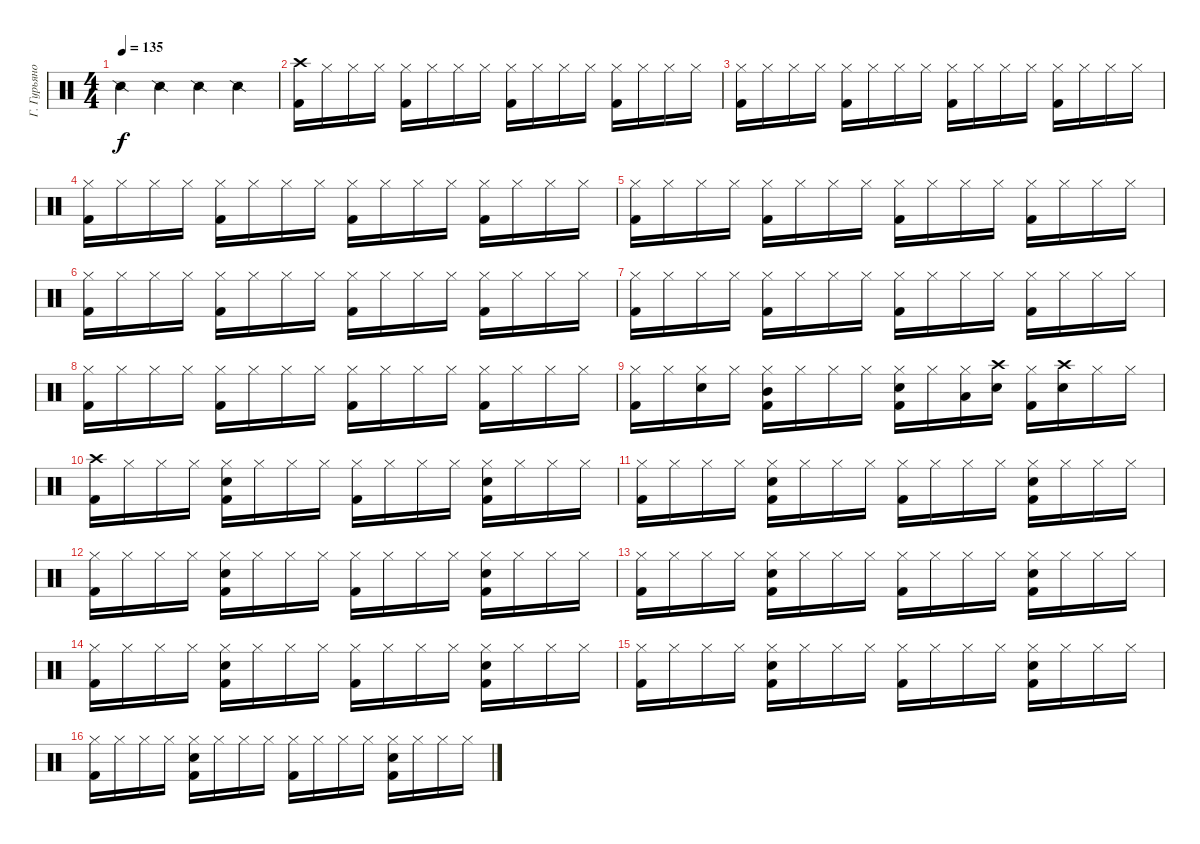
\track ("Г. Гурьянов" "Г. Гурьяно") {instrument percussion}
\staff {score}
\articulation defaults
\ts (4 4)
\tempo 135
\clef neutral
\ks c "Snare (side stick) 2".4{dy f} "Snare (side stick) 2".4 "Snare (side stick) 2".4 "Snare (side stick) 2".4
|
("Crash high (hit)" "Kick (hit) 2").16 "Hi-Hat (closed)".16 "Hi-Hat (closed)".16 "Hi-Hat (closed)".16 ("Hi-Hat (closed)" "Kick (hit) 2").16 "Hi-Hat (closed)".16 "Hi-Hat (closed)".16 "Hi-Hat (closed)".16 ("Hi-Hat (closed)" "Kick (hit) 2").16 "Hi-Hat (closed)".16 "Hi-Hat (closed)".16 "Hi-Hat (closed)".16 ("Hi-Hat (closed)" "Kick (hit) 2").16 "Hi-Hat (closed)".16 "Hi-Hat (closed)".16 "Hi-Hat (closed)".16 |
("Hi-Hat (closed)" "Kick (hit) 2").16 "Hi-Hat (closed)".16 "Hi-Hat (closed)".16 "Hi-Hat (closed)".16 ("Hi-Hat (closed)" "Kick (hit) 2").16 "Hi-Hat (closed)".16 "Hi-Hat (closed)".16 "Hi-Hat (closed)".16 ("Hi-Hat (closed)" "Kick (hit) 2").16 "Hi-Hat (closed)".16 "Hi-Hat (closed)".16 "Hi-Hat (closed)".16 ("Hi-Hat (closed)" "Kick (hit) 2").16 "Hi-Hat (closed)".16 "Hi-Hat (closed)".16 "Hi-Hat (closed)".16 |
("Hi-Hat (closed)" "Kick (hit) 2").16 "Hi-Hat (closed)".16 "Hi-Hat (closed)".16 "Hi-Hat (closed)".16 ("Hi-Hat (closed)" "Kick (hit) 2").16 "Hi-Hat (closed)".16 "Hi-Hat (closed)".16 "Hi-Hat (closed)".16 ("Hi-Hat (closed)" "Kick (hit) 2").16 "Hi-Hat (closed)".16 "Hi-Hat (closed)".16 "Hi-Hat (closed)".16 ("Hi-Hat (closed)" "Kick (hit) 2").16 "Hi-Hat (closed)".16 "Hi-Hat (closed)".16 "Hi-Hat (closed)".16 |
("Hi-Hat (closed)" "Kick (hit) 2").16 "Hi-Hat (closed)".16 "Hi-Hat (closed)".16 "Hi-Hat (closed)".16 ("Hi-Hat (closed)" "Kick (hit) 2").16 "Hi-Hat (closed)".16 "Hi-Hat (closed)".16 "Hi-Hat (closed)".16 ("Hi-Hat (closed)" "Kick (hit) 2").16 "Hi-Hat (closed)".16 "Hi-Hat (closed)".16 "Hi-Hat (closed)".16 ("Hi-Hat (closed)" "Kick (hit) 2").16 "Hi-Hat (closed)".16 "Hi-Hat (closed)".16 "Hi-Hat (closed)".16 |
("Hi-Hat (closed)" "Kick (hit) 2").16 "Hi-Hat (closed)".16 "Hi-Hat (closed)".16 "Hi-Hat (closed)".16 ("Hi-Hat (closed)" "Kick (hit) 2").16 "Hi-Hat (closed)".16 "Hi-Hat (closed)".16 "Hi-Hat (closed)".16 ("Hi-Hat (closed)" "Kick (hit) 2").16 "Hi-Hat (closed)".16 "Hi-Hat (closed)".16 "Hi-Hat (closed)".16 ("Hi-Hat (closed)" "Kick (hit) 2").16 "Hi-Hat (closed)".16 "Hi-Hat (closed)".16 "Hi-Hat (closed)".16 |
("Hi-Hat (closed)" "Kick (hit) 2").16 "Hi-Hat (closed)".16 "Hi-Hat (closed)".16 "Hi-Hat (closed)".16 ("Hi-Hat (closed)" "Kick (hit) 2").16 "Hi-Hat (closed)".16 "Hi-Hat (closed)".16 "Hi-Hat (closed)".16 ("Hi-Hat (closed)" "Kick (hit) 2").16 "Hi-Hat (closed)".16 "Hi-Hat (closed)".16 "Hi-Hat (closed)".16 ("Hi-Hat (closed)" "Kick (hit) 2").16 "Hi-Hat (closed)".16 "Hi-Hat (closed)".16 "Hi-Hat (closed)".16 |
("Hi-Hat (closed)" "Kick (hit) 2").16 "Hi-Hat (closed)".16 "Hi-Hat (closed)".16 "Hi-Hat (closed)".16 ("Hi-Hat (closed)" "Kick (hit) 2").16 "Hi-Hat (closed)".16 "Hi-Hat (closed)".16 "Hi-Hat (closed)".16 ("Hi-Hat (closed)" "Kick (hit) 2").16 "Hi-Hat (closed)".16 "Hi-Hat (closed)".16 "Hi-Hat (closed)".16 ("Hi-Hat (closed)" "Kick (hit) 2").16 "Hi-Hat (closed)".16 "Hi-Hat (closed)".16 "Hi-Hat (closed)".16 |
("Hi-Hat (closed)" "Kick (hit) 2").16 "Hi-Hat (closed)".16 ("Hi-Hat (closed)" "Electric Snare (hit)").16 "Hi-Hat (closed)".16 ("Hi-Hat (closed)" "Mid Tom (hit)" "Kick (hit) 2").16 "Hi-Hat (closed)".16 "Hi-Hat (closed)".16 "Hi-Hat (closed)".16 ("Hi-Hat (closed)" "Electric Snare (hit)" "Kick (hit) 2").16 "Hi-Hat (closed)".16 ("Hi-Hat (closed)" "Low Tom (hit)").16 ("Crash high (hit)" "Electric Snare (hit)").16 ("Hi-Hat (closed)" "Kick (hit) 2").16 ("Crash high (hit)" "Electric Snare (hit)").16 "Hi-Hat (closed)".16 "Hi-Hat (closed)".16 |
("Crash high (hit)" "Kick (hit) 2").16 "Hi-Hat (closed)".16 "Hi-Hat (closed)".16 "Hi-Hat (closed)".16 ("Hi-Hat (closed)" "Electric Snare (hit)" "Kick (hit) 2").16 "Hi-Hat (closed)".16 "Hi-Hat (closed)".16 "Hi-Hat (closed)".16 ("Hi-Hat (closed)" "Kick (hit) 2").16 "Hi-Hat (closed)".16 "Hi-Hat (closed)".16 "Hi-Hat (closed)".16 ("Hi-Hat (closed)" "Electric Snare (hit)" "Kick (hit) 2").16 "Hi-Hat (closed)".16 "Hi-Hat (closed)".16 "Hi-Hat (closed)".16 |
("Hi-Hat (closed)" "Kick (hit) 2").16 "Hi-Hat (closed)".16 "Hi-Hat (closed)".16 "Hi-Hat (closed)".16 ("Hi-Hat (closed)" "Electric Snare (hit)" "Kick (hit) 2").16 "Hi-Hat (closed)".16 "Hi-Hat (closed)".16 "Hi-Hat (closed)".16 ("Hi-Hat (closed)" "Kick (hit) 2").16 "Hi-Hat (closed)".16 "Hi-Hat (closed)".16 "Hi-Hat (closed)".16 ("Hi-Hat (closed)" "Electric Snare (hit)" "Kick (hit) 2").16 "Hi-Hat (closed)".16 "Hi-Hat (closed)".16 "Hi-Hat (closed)".16 |
("Hi-Hat (closed)" "Kick (hit) 2").16 "Hi-Hat (closed)".16 "Hi-Hat (closed)".16 "Hi-Hat (closed)".16 ("Hi-Hat (closed)" "Electric Snare (hit)" "Kick (hit) 2").16 "Hi-Hat (closed)".16 "Hi-Hat (closed)".16 "Hi-Hat (closed)".16 ("Hi-Hat (closed)" "Kick (hit) 2").16 "Hi-Hat (closed)".16 "Hi-Hat (closed)".16 "Hi-Hat (closed)".16 ("Hi-Hat (closed)" "Electric Snare (hit)" "Kick (hit) 2").16 "Hi-Hat (closed)".16 "Hi-Hat (closed)".16 "Hi-Hat (closed)".16 |
("Hi-Hat (closed)" "Kick (hit) 2").16 "Hi-Hat (closed)".16 "Hi-Hat (closed)".16 "Hi-Hat (closed)".16 ("Hi-Hat (closed)" "Electric Snare (hit)" "Kick (hit) 2").16 "Hi-Hat (closed)".16 "Hi-Hat (closed)".16 "Hi-Hat (closed)".16 ("Hi-Hat (closed)" "Kick (hit) 2").16 "Hi-Hat (closed)".16 "Hi-Hat (closed)".16 "Hi-Hat (closed)".16 ("Hi-Hat (closed)" "Electric Snare (hit)" "Kick (hit) 2").16 "Hi-Hat (closed)".16 "Hi-Hat (closed)".16 "Hi-Hat (closed)".16 |
("Hi-Hat (closed)" "Kick (hit) 2").16 "Hi-Hat (closed)".16 "Hi-Hat (closed)".16 "Hi-Hat (closed)".16 ("Hi-Hat (closed)" "Electric Snare (hit)" "Kick (hit) 2").16 "Hi-Hat (closed)".16 "Hi-Hat (closed)".16 "Hi-Hat (closed)".16 ("Hi-Hat (closed)" "Kick (hit) 2").16 "Hi-Hat (closed)".16 "Hi-Hat (closed)".16 "Hi-Hat (closed)".16 ("Hi-Hat (closed)" "Electric Snare (hit)" "Kick (hit) 2").16 "Hi-Hat (closed)".16 "Hi-Hat (closed)".16 "Hi-Hat (closed)".16 |
("Hi-Hat (closed)" "Kick (hit) 2").16 "Hi-Hat (closed)".16 "Hi-Hat (closed)".16 "Hi-Hat (closed)".16 ("Hi-Hat (closed)" "Electric Snare (hit)" "Kick (hit) 2").16 "Hi-Hat (closed)".16 "Hi-Hat (closed)".16 "Hi-Hat (closed)".16 ("Hi-Hat (closed)" "Kick (hit) 2").16 "Hi-Hat (closed)".16 "Hi-Hat (closed)".16 "Hi-Hat (closed)".16 ("Hi-Hat (closed)" "Electric Snare (hit)" "Kick (hit) 2").16 "Hi-Hat (closed)".16 "Hi-Hat (closed)".16 "Hi-Hat (closed)".16 |
("Hi-Hat (closed)" "Kick (hit) 2").16 "Hi-Hat (closed)".16 "Hi-Hat (closed)".16 "Hi-Hat (closed)".16 ("Hi-Hat (closed)" "Electric Snare (hit)" "Kick (hit) 2").16 "Hi-Hat (closed)".16 "Hi-Hat (closed)".16 "Hi-Hat (closed)".16 ("Hi-Hat (closed)" "Kick (hit) 2").16 "Hi-Hat (closed)".16 "Hi-Hat (closed)".16 "Hi-Hat (closed)".16 ("Hi-Hat (closed)" "Electric Snare (hit)" "Kick (hit) 2").16 "Hi-Hat (closed)".16 "Hi-Hat (closed)".16 "Hi-Hat (closed)".16
